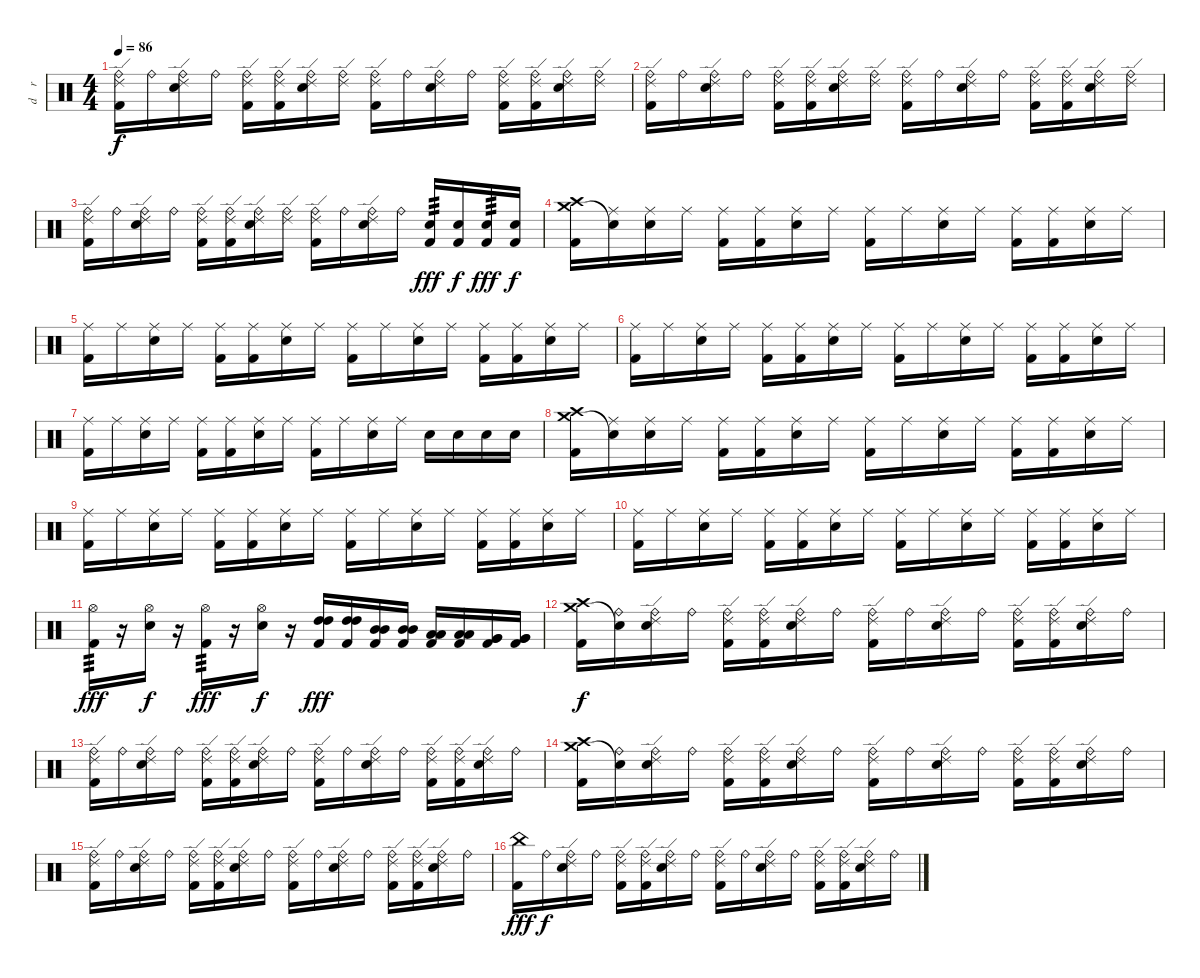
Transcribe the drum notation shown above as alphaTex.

\track ("d    r     u    m    s" "d    r    ") {instrument percussion}
\staff {score}
\articulation defaults
\ts (4 4)
\tempo 86
\clef neutral
\ks c
("Ride (bell)" "Ride (edge) 2" "Kick (hit) 2").16{dy f} "Ride (bell)".16 ("Ride (bell)" "Ride (edge) 2" "Electric Snare (hit)").16 "Ride (bell)".16 ("Ride (bell)" "Ride (edge) 2" "Kick (hit) 2").16 ("Ride (bell)" "Ride (edge) 2" "Kick (hit) 2").16 ("Ride (bell)" "Ride (edge) 2" "Electric Snare (hit)").16 ("Ride (bell)" "Ride (edge) 2").16 ("Ride (bell)" "Ride (edge) 2" "Kick (hit) 2").16 "Ride (bell)".16 ("Ride (bell)" "Ride (edge) 2" "Electric Snare (hit)").16 "Ride (bell)".16 ("Ride (bell)" "Ride (edge) 2" "Kick (hit) 2").16 ("Ride (bell)" "Ride (edge) 2" "Kick (hit) 2").16 ("Ride (bell)" "Ride (edge) 2" "Electric Snare (hit)").16 ("Ride (bell)" "Ride (edge) 2").16 |
("Ride (bell)" "Ride (edge) 2" "Kick (hit) 2").16 "Ride (bell)".16 ("Ride (bell)" "Ride (edge) 2" "Electric Snare (hit)").16 "Ride (bell)".16 ("Ride (bell)" "Ride (edge) 2" "Kick (hit) 2").16 ("Ride (bell)" "Ride (edge) 2" "Kick (hit) 2").16 ("Ride (bell)" "Ride (edge) 2" "Electric Snare (hit)").16 ("Ride (bell)" "Ride (edge) 2").16 ("Ride (bell)" "Ride (edge) 2" "Kick (hit) 2").16 "Ride (bell)".16 ("Ride (bell)" "Ride (edge) 2" "Electric Snare (hit)").16 "Ride (bell)".16 ("Ride (bell)" "Ride (edge) 2" "Kick (hit) 2").16 ("Ride (bell)" "Ride (edge) 2" "Kick (hit) 2").16 ("Ride (bell)" "Ride (edge) 2" "Electric Snare (hit)").16 ("Ride (bell)" "Ride (edge) 2").16 |
("Ride (bell)" "Ride (edge) 2" "Kick (hit) 2").16 "Ride (bell)".16 ("Ride (bell)" "Ride (edge) 2" "Electric Snare (hit)").16 "Ride (bell)".16 ("Ride (bell)" "Ride (edge) 2" "Kick (hit) 2").16 ("Ride (bell)" "Ride (edge) 2" "Kick (hit) 2").16 ("Ride (bell)" "Ride (edge) 2" "Electric Snare (hit)").16 ("Ride (bell)" "Ride (edge) 2").16 ("Ride (bell)" "Ride (edge) 2" "Kick (hit) 2").16 "Ride (bell)".16 ("Ride (bell)" "Ride (edge) 2" "Electric Snare (hit)").16 "Ride (bell)".16 ("Electric Snare (hit)" "Kick (hit) 2").16{tp 3 dy fff} ("Electric Snare (hit)" "Kick (hit) 2").16{dy f} ("Electric Snare (hit)" "Kick (hit) 2").16{tp 3 dy fff} ("Electric Snare (hit)" "Kick (hit) 2").16{dy f} |
("Crash high (hit)" "Crash medium (hit)" "Kick (hit) 2").16 ("Ride (middle)" "Snare (hit)"{t}).16 ("Ride (middle)" "Electric Snare (hit)").16 "Ride (middle)".16 ("Ride (middle)" "Kick (hit) 2").16 ("Ride (middle)" "Kick (hit) 2").16 ("Ride (middle)" "Electric Snare (hit)").16 "Ride (middle)".16 ("Ride (middle)" "Kick (hit) 2").16 "Ride (middle)".16 ("Ride (middle)" "Electric Snare (hit)").16 "Ride (middle)".16 ("Ride (middle)" "Kick (hit) 2").16 ("Ride (middle)" "Kick (hit) 2").16 ("Ride (middle)" "Electric Snare (hit)").16 "Ride (middle)".16 |
("Ride (middle)" "Kick (hit) 2").16 "Ride (middle)".16 ("Ride (middle)" "Electric Snare (hit)").16 "Ride (middle)".16 ("Ride (middle)" "Kick (hit) 2").16 ("Ride (middle)" "Kick (hit) 2").16 ("Ride (middle)" "Electric Snare (hit)").16 "Ride (middle)".16 ("Ride (middle)" "Kick (hit) 2").16 "Ride (middle)".16 ("Ride (middle)" "Electric Snare (hit)").16 "Ride (middle)".16 ("Ride (middle)" "Kick (hit) 2").16 ("Ride (middle)" "Kick (hit) 2").16 ("Ride (middle)" "Electric Snare (hit)").16 "Ride (middle)".16 |
("Ride (middle)" "Kick (hit) 2").16 "Ride (middle)".16 ("Ride (middle)" "Electric Snare (hit)").16 "Ride (middle)".16 ("Ride (middle)" "Kick (hit) 2").16 ("Ride (middle)" "Kick (hit) 2").16 ("Ride (middle)" "Electric Snare (hit)").16 "Ride (middle)".16 ("Ride (middle)" "Kick (hit) 2").16 "Ride (middle)".16 ("Ride (middle)" "Electric Snare (hit)").16 "Ride (middle)".16 ("Ride (middle)" "Kick (hit) 2").16 ("Ride (middle)" "Kick (hit) 2").16 ("Ride (middle)" "Electric Snare (hit)").16 "Ride (middle)".16 |
("Ride (middle)" "Kick (hit) 2").16 "Ride (middle)".16 ("Ride (middle)" "Electric Snare (hit)").16 "Ride (middle)".16 ("Ride (middle)" "Kick (hit) 2").16 ("Ride (middle)" "Kick (hit) 2").16 ("Ride (middle)" "Electric Snare (hit)").16 "Ride (middle)".16 ("Ride (middle)" "Kick (hit) 2").16 "Ride (middle)".16 ("Ride (middle)" "Electric Snare (hit)").16 "Ride (middle)".16 "Electric Snare (hit)".16 "Electric Snare (hit)".16 "Electric Snare (hit)".16 "Electric Snare (hit)".16 |
("Crash high (hit)" "Crash medium (hit)" "Kick (hit) 2").16 ("Ride (middle)" "Snare (hit)"{t}).16 ("Ride (middle)" "Electric Snare (hit)").16 "Ride (middle)".16 ("Ride (middle)" "Kick (hit) 2").16 ("Ride (middle)" "Kick (hit) 2").16 ("Ride (middle)" "Electric Snare (hit)").16 "Ride (middle)".16 ("Ride (middle)" "Kick (hit) 2").16 "Ride (middle)".16 ("Ride (middle)" "Electric Snare (hit)").16 "Ride (middle)".16 ("Ride (middle)" "Kick (hit) 2").16 ("Ride (middle)" "Kick (hit) 2").16 ("Ride (middle)" "Electric Snare (hit)").16 "Ride (middle)".16 |
("Ride (middle)" "Kick (hit) 2").16 "Ride (middle)".16 ("Ride (middle)" "Electric Snare (hit)").16 "Ride (middle)".16 ("Ride (middle)" "Kick (hit) 2").16 ("Ride (middle)" "Kick (hit) 2").16 ("Ride (middle)" "Electric Snare (hit)").16 "Ride (middle)".16 ("Ride (middle)" "Kick (hit) 2").16 "Ride (middle)".16 ("Ride (middle)" "Electric Snare (hit)").16 "Ride (middle)".16 ("Ride (middle)" "Kick (hit) 2").16 ("Ride (middle)" "Kick (hit) 2").16 ("Ride (middle)" "Electric Snare (hit)").16 "Ride (middle)".16 |
("Ride (middle)" "Kick (hit) 2").16 "Ride (middle)".16 ("Ride (middle)" "Electric Snare (hit)").16 "Ride (middle)".16 ("Ride (middle)" "Kick (hit) 2").16 ("Ride (middle)" "Kick (hit) 2").16 ("Ride (middle)" "Electric Snare (hit)").16 "Ride (middle)".16 ("Ride (middle)" "Kick (hit) 2").16 "Ride (middle)".16 ("Ride (middle)" "Electric Snare (hit)").16 "Ride (middle)".16 ("Ride (middle)" "Kick (hit) 2").16 ("Ride (middle)" "Kick (hit) 2").16 ("Ride (middle)" "Electric Snare (hit)").16 "Ride (middle)".16 |
("Hi-Hat (open)" "Kick (hit) 2").16{tp 3 dy fff} r.16 ("Hi-Hat (open)" "Electric Snare (hit)").16{dy f} r.16 ("Hi-Hat (open)" "Kick (hit) 2").16{tp 3 dy fff} r.16 ("Hi-Hat (open)" "Electric Snare (hit)").16{dy f} r.16 ("High Tom (hit)" "High Tom (hit)" "Kick (hit) 2").16{dy fff} ("High Tom (hit)" "High Tom (hit)" "Kick (hit) 2").16 ("Mid Tom (hit)" "Mid Tom (hit)" "Kick (hit) 2").16 ("Mid Tom (hit)" "Mid Tom (hit)" "Kick (hit) 2").16 ("Low Tom (hit)" "Low Tom (hit)" "Kick (hit) 2").16 ("Low Tom (hit)" "Low Tom (hit)" "Kick (hit) 2").16 ("Very Low Tom (hit)" "Very Low Tom (hit)" "Kick (hit) 2").16 ("Very Low Tom (hit)" "Very Low Tom (hit)" "Kick (hit) 2").16 |
("Crash high (hit)" "Crash medium (hit)" "Kick (hit) 2").16{dy f} ("Ride (bell)" "Snare (hit)"{t}).16 ("Ride (bell)" "Ride (edge) 2" "Electric Snare (hit)").16 "Ride (bell)".16 ("Ride (bell)" "Ride (edge) 2" "Kick (hit) 2").16 ("Ride (bell)" "Ride (edge) 2" "Kick (hit) 2").16 ("Ride (bell)" "Ride (edge) 2" "Electric Snare (hit)").16 "Ride (bell)".16 ("Ride (bell)" "Ride (edge) 2" "Kick (hit) 2").16 "Ride (bell)".16 ("Ride (bell)" "Ride (edge) 2" "Electric Snare (hit)").16 "Ride (bell)".16 ("Ride (bell)" "Ride (edge) 2" "Kick (hit) 2").16 ("Ride (bell)" "Ride (edge) 2" "Kick (hit) 2").16 ("Ride (bell)" "Ride (edge) 2" "Electric Snare (hit)").16 "Ride (bell)".16 |
("Ride (bell)" "Ride (edge) 2" "Kick (hit) 2").16 "Ride (bell)".16 ("Ride (bell)" "Ride (edge) 2" "Electric Snare (hit)").16 "Ride (bell)".16 ("Ride (bell)" "Ride (edge) 2" "Kick (hit) 2").16 ("Ride (bell)" "Ride (edge) 2" "Kick (hit) 2").16 ("Ride (bell)" "Ride (edge) 2" "Electric Snare (hit)").16 "Ride (bell)".16 ("Ride (bell)" "Ride (edge) 2" "Kick (hit) 2").16 "Ride (bell)".16 ("Ride (bell)" "Ride (edge) 2" "Electric Snare (hit)").16 "Ride (bell)".16 ("Ride (bell)" "Ride (edge) 2" "Kick (hit) 2").16 ("Ride (bell)" "Ride (edge) 2" "Kick (hit) 2").16 ("Ride (bell)" "Ride (edge) 2" "Electric Snare (hit)").16 "Ride (bell)".16 |
("Crash high (hit)" "Crash medium (hit)" "Kick (hit) 2").16 ("Ride (bell)" "Snare (hit)"{t}).16 ("Ride (bell)" "Ride (edge) 2" "Electric Snare (hit)").16 "Ride (bell)".16 ("Ride (bell)" "Ride (edge) 2" "Kick (hit) 2").16 ("Ride (bell)" "Ride (edge) 2" "Kick (hit) 2").16 ("Ride (bell)" "Ride (edge) 2" "Electric Snare (hit)").16 "Ride (bell)".16 ("Ride (bell)" "Ride (edge) 2" "Kick (hit) 2").16 "Ride (bell)".16 ("Ride (bell)" "Ride (edge) 2" "Electric Snare (hit)").16 "Ride (bell)".16 ("Ride (bell)" "Ride (edge) 2" "Kick (hit) 2").16 ("Ride (bell)" "Ride (edge) 2" "Kick (hit) 2").16 ("Ride (bell)" "Ride (edge) 2" "Electric Snare (hit)").16 "Ride (bell)".16 |
("Ride (bell)" "Ride (edge) 2" "Kick (hit) 2").16 "Ride (bell)".16 ("Ride (bell)" "Ride (edge) 2" "Electric Snare (hit)").16 "Ride (bell)".16 ("Ride (bell)" "Ride (edge) 2" "Kick (hit) 2").16 ("Ride (bell)" "Ride (edge) 2" "Kick (hit) 2").16 ("Ride (bell)" "Ride (edge) 2" "Electric Snare (hit)").16 "Ride (bell)".16 ("Ride (bell)" "Ride (edge) 2" "Kick (hit) 2").16 "Ride (bell)".16 ("Ride (bell)" "Ride (edge) 2" "Electric Snare (hit)").16 "Ride (bell)".16 ("Ride (bell)" "Ride (edge) 2" "Kick (hit) 2").16 ("Ride (bell)" "Ride (edge) 2" "Kick (hit) 2").16 ("Ride (bell)" "Ride (edge) 2" "Electric Snare (hit)").16 "Ride (bell)".16 |
("China (hit)" "Kick (hit) 2").16{dy fff} "Ride (bell)".16{dy f} ("Ride (bell)" "Ride (edge) 2" "Electric Snare (hit)").16 "Ride (bell)".16 ("Ride (bell)" "Ride (edge) 2" "Kick (hit) 2").16 ("Ride (bell)" "Ride (edge) 2" "Kick (hit) 2").16 ("Ride (bell)" "Ride (edge) 2" "Electric Snare (hit)").16 "Ride (bell)".16 ("Ride (bell)" "Ride (edge) 2" "Kick (hit) 2").16 "Ride (bell)".16 ("Ride (bell)" "Ride (edge) 2" "Electric Snare (hit)").16 "Ride (bell)".16 ("Ride (bell)" "Ride (edge) 2" "Kick (hit) 2").16 ("Ride (bell)" "Ride (edge) 2" "Kick (hit) 2").16 ("Ride (bell)" "Ride (edge) 2" "Electric Snare (hit)").16 "Ride (bell)".16
